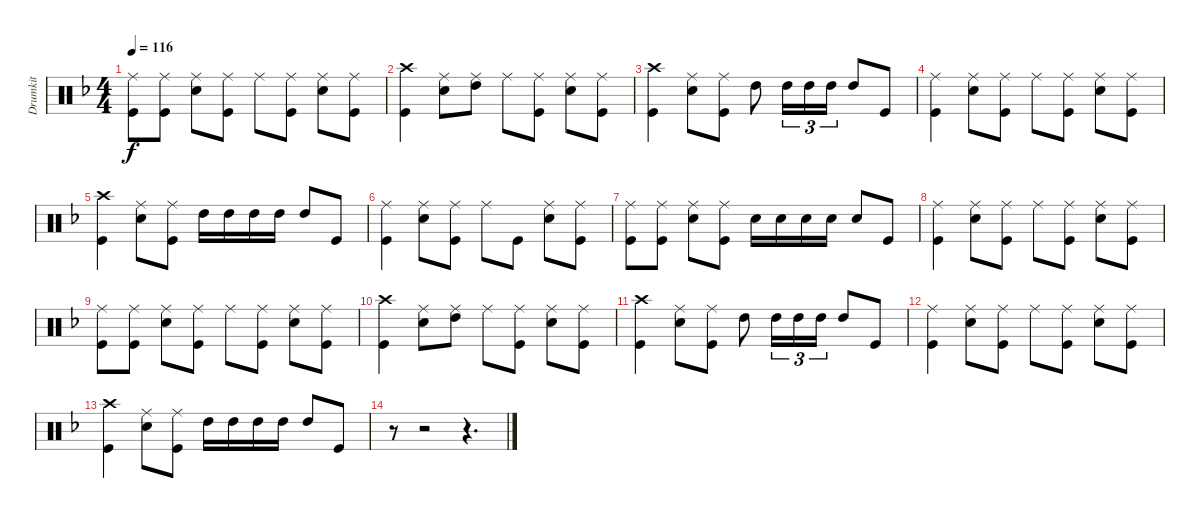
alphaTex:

\track ("Drumkit" "Drumkit") {instrument percussion}
\staff {score}
\articulation defaults
\ts (4 4)
\tempo 116
\clef neutral
\ks dminor
("Ride (middle)" "Kick (hit)").8{dy f} ("Ride (middle)" "Kick (hit)").8 ("Ride (middle)" "Snare (hit) 2").8 ("Ride (middle)" "Kick (hit)").8 "Ride (middle)".8 ("Ride (middle)" "Kick (hit)").8 ("Ride (middle)" "Snare (hit) 2").8 ("Ride (middle)" "Kick (hit)").8 |
("Crash high (hit)" "Kick (hit)").4 ("Ride (middle)" "Snare (hit) 2").8 ("Ride (middle)" "High Tom (hit)").8 "Ride (middle)".8 ("Ride (middle)" "Kick (hit)").8 ("Ride (middle)" "Snare (hit) 2").8 ("Ride (middle)" "Kick (hit)").8 |
("Crash high (hit)" "Kick (hit)").4 ("Ride (middle)" "Snare (hit) 2").8 ("Ride (middle)" "Kick (hit)").8 "High Tom (hit)".8 "High Tom (hit)".16{tu (3 2)} "High Tom (hit)".16{tu (3 2)} "High Tom (hit)".16{tu (3 2)} "High Tom (hit)".8 "Kick (hit)".8 |
("Ride (middle)" "Kick (hit)").4 ("Ride (middle)" "Snare (hit) 2").8 ("Ride (middle)" "Kick (hit)").8 "Ride (middle)".8 ("Ride (middle)" "Kick (hit)").8 ("Ride (middle)" "Snare (hit) 2").8 ("Ride (middle)" "Kick (hit)").8 |
("Crash high (hit)" "Kick (hit)").4 ("Ride (middle)" "Snare (hit) 2").8 ("Ride (middle)" "Kick (hit)").8 "High Tom (hit)".16 "High Tom (hit)".16 "High Tom (hit)".16 "High Tom (hit)".16 "High Tom (hit)".8 "Kick (hit)".8 |
("Ride (middle)" "Kick (hit)").4 ("Ride (middle)" "Snare (hit) 2").8 ("Ride (middle)" "Kick (hit)").8 "Ride (middle)".8 "Kick (hit)".8 ("Ride (middle)" "Snare (hit) 2").8 ("Ride (middle)" "Kick (hit)").8 |
("Ride (middle)" "Kick (hit)").8 ("Ride (middle)" "Kick (hit)").8 ("Ride (middle)" "Snare (hit) 2").8 ("Ride (middle)" "Kick (hit)").8 "Snare (hit) 2".16 "Snare (hit) 2".16 "Snare (hit) 2".16 "Snare (hit) 2".16 "Snare (hit) 2".8 "Kick (hit)".8 |
("Ride (middle)" "Kick (hit)").4 ("Ride (middle)" "Snare (hit) 2").8 ("Ride (middle)" "Kick (hit)").8 "Ride (middle)".8 ("Ride (middle)" "Kick (hit)").8 ("Ride (middle)" "Snare (hit) 2").8 ("Ride (middle)" "Kick (hit)").8 |
("Ride (middle)" "Kick (hit)").8 ("Ride (middle)" "Kick (hit)").8 ("Ride (middle)" "Snare (hit) 2").8 ("Ride (middle)" "Kick (hit)").8 "Ride (middle)".8 ("Ride (middle)" "Kick (hit)").8 ("Ride (middle)" "Snare (hit) 2").8 ("Ride (middle)" "Kick (hit)").8 |
("Crash high (hit)" "Kick (hit)").4 ("Ride (middle)" "Snare (hit) 2").8 ("Ride (middle)" "High Tom (hit)").8 "Ride (middle)".8 ("Ride (middle)" "Kick (hit)").8 ("Ride (middle)" "Snare (hit) 2").8 ("Ride (middle)" "Kick (hit)").8 |
("Crash high (hit)" "Kick (hit)").4 ("Ride (middle)" "Snare (hit) 2").8 ("Ride (middle)" "Kick (hit)").8 "High Tom (hit)".8 "High Tom (hit)".16{tu (3 2)} "High Tom (hit)".16{tu (3 2)} "High Tom (hit)".16{tu (3 2)} "High Tom (hit)".8 "Kick (hit)".8 |
("Ride (middle)" "Kick (hit)").4 ("Ride (middle)" "Snare (hit) 2").8 ("Ride (middle)" "Kick (hit)").8 "Ride (middle)".8 ("Ride (middle)" "Kick (hit)").8 ("Ride (middle)" "Snare (hit) 2").8 ("Ride (middle)" "Kick (hit)").8 |
("Crash high (hit)" "Kick (hit)").4 ("Ride (middle)" "Snare (hit) 2").8 ("Ride (middle)" "Kick (hit)").8 "High Tom (hit)".16 "High Tom (hit)".16 "High Tom (hit)".16 "High Tom (hit)".16 "High Tom (hit)".8 "Kick (hit)".8 |
r.8 r.2 r.4{d}
